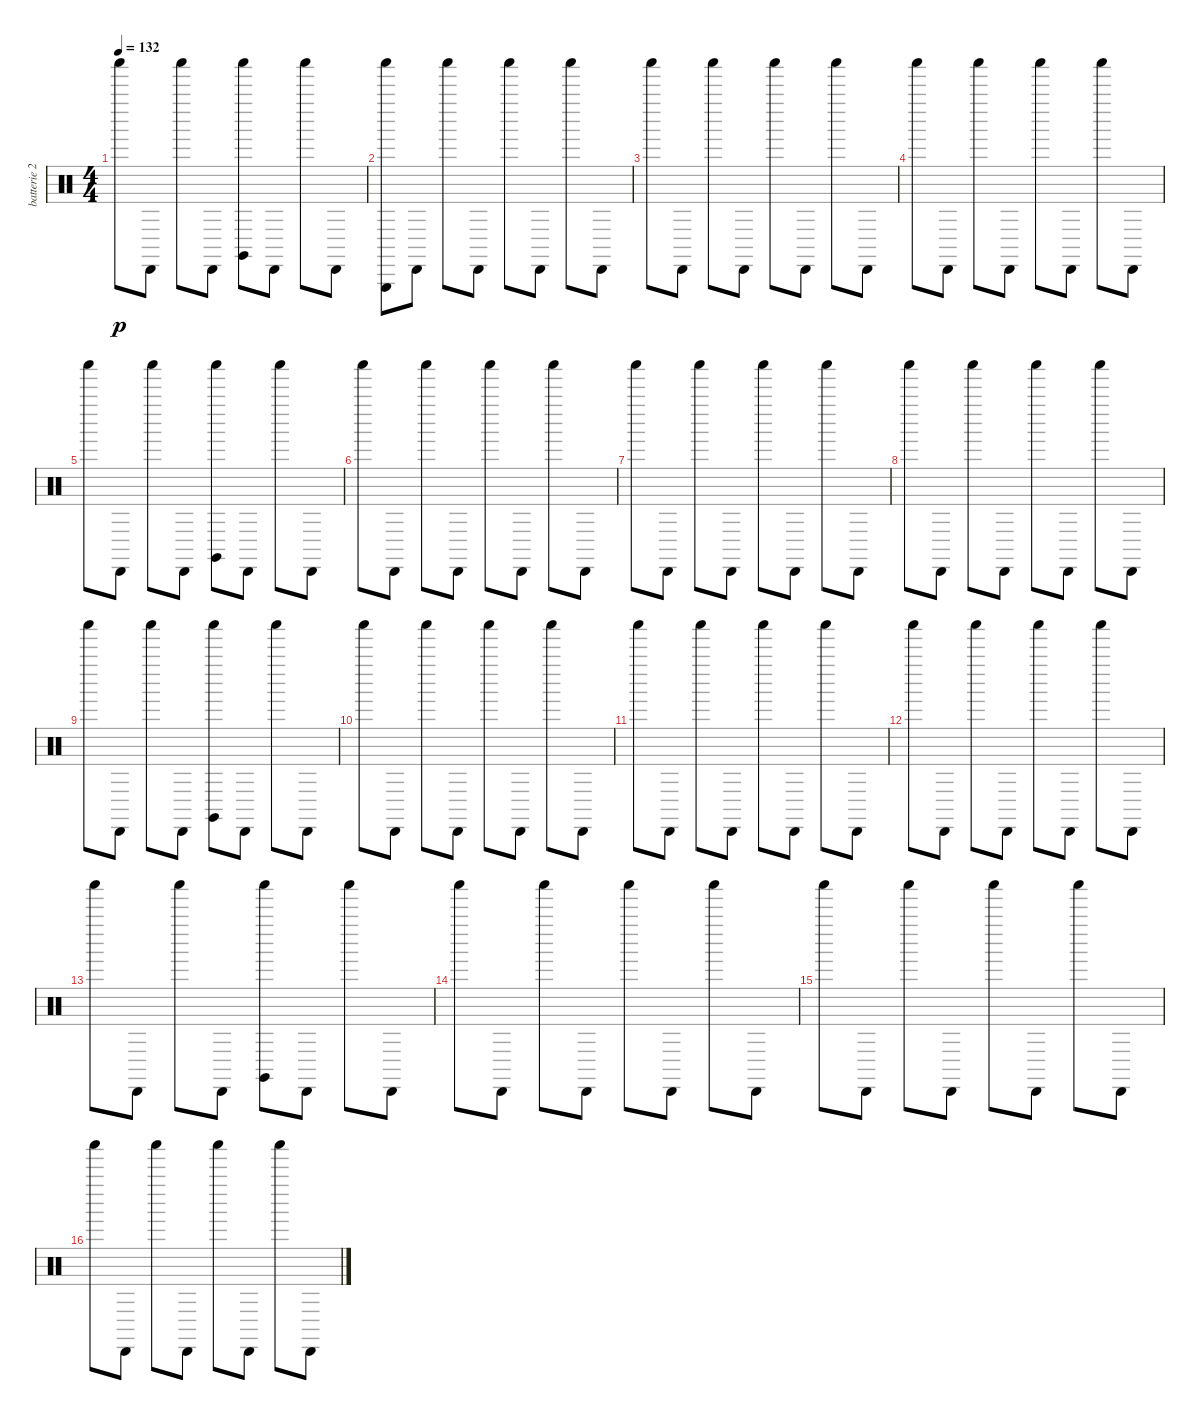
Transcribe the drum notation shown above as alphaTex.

\track ("batterie 2" "batterie 2") {instrument percussion}
\staff {score}
\articulation defaults
\ts (4 4)
\tempo 132
\clef neutral
\ks c "Shaker (hit)".8{dy p} "Cabasa (hit)".8 "Shaker (hit)".8 "Cabasa (hit)".8
("Claves (hit)" "Shaker (hit)").8 "Cabasa (hit)".8 "Shaker (hit)".8 "Cabasa (hit)".8 |
("Triangle (hit)" "Shaker (hit)").8 "Cabasa (hit)".8 "Shaker (hit)".8 "Cabasa (hit)".8 "Shaker (hit)".8 "Cabasa (hit)".8 "Shaker (hit)".8 "Cabasa (hit)".8 |
"Shaker (hit)".8 "Cabasa (hit)".8 "Shaker (hit)".8 "Cabasa (hit)".8 "Shaker (hit)".8 "Cabasa (hit)".8 "Shaker (hit)".8 "Cabasa (hit)".8 |
"Shaker (hit)".8 "Cabasa (hit)".8 "Shaker (hit)".8 "Cabasa (hit)".8 "Shaker (hit)".8 "Cabasa (hit)".8 "Shaker (hit)".8 "Cabasa (hit)".8 |
"Shaker (hit)".8 "Cabasa (hit)".8 "Shaker (hit)".8 "Cabasa (hit)".8 ("Claves (hit)" "Shaker (hit)").8 "Cabasa (hit)".8 "Shaker (hit)".8 "Cabasa (hit)".8 |
"Shaker (hit)".8 "Cabasa (hit)".8 "Shaker (hit)".8 "Cabasa (hit)".8 "Shaker (hit)".8 "Cabasa (hit)".8 "Shaker (hit)".8 "Cabasa (hit)".8 |
"Shaker (hit)".8 "Cabasa (hit)".8 "Shaker (hit)".8 "Cabasa (hit)".8 "Shaker (hit)".8 "Cabasa (hit)".8 "Shaker (hit)".8 "Cabasa (hit)".8 |
"Shaker (hit)".8 "Cabasa (hit)".8 "Shaker (hit)".8 "Cabasa (hit)".8 "Shaker (hit)".8 "Cabasa (hit)".8 "Shaker (hit)".8 "Cabasa (hit)".8 |
"Shaker (hit)".8 "Cabasa (hit)".8 "Shaker (hit)".8 "Cabasa (hit)".8 ("Claves (hit)" "Shaker (hit)").8 "Cabasa (hit)".8 "Shaker (hit)".8 "Cabasa (hit)".8 |
"Shaker (hit)".8 "Cabasa (hit)".8 "Shaker (hit)".8 "Cabasa (hit)".8 "Shaker (hit)".8 "Cabasa (hit)".8 "Shaker (hit)".8 "Cabasa (hit)".8 |
"Shaker (hit)".8 "Cabasa (hit)".8 "Shaker (hit)".8 "Cabasa (hit)".8 "Shaker (hit)".8 "Cabasa (hit)".8 "Shaker (hit)".8 "Cabasa (hit)".8 |
"Shaker (hit)".8 "Cabasa (hit)".8 "Shaker (hit)".8 "Cabasa (hit)".8 "Shaker (hit)".8 "Cabasa (hit)".8 "Shaker (hit)".8 "Cabasa (hit)".8 |
"Shaker (hit)".8 "Cabasa (hit)".8 "Shaker (hit)".8 "Cabasa (hit)".8 ("Claves (hit)" "Shaker (hit)").8 "Cabasa (hit)".8 "Shaker (hit)".8 "Cabasa (hit)".8 |
"Shaker (hit)".8 "Cabasa (hit)".8 "Shaker (hit)".8 "Cabasa (hit)".8 "Shaker (hit)".8 "Cabasa (hit)".8 "Shaker (hit)".8 "Cabasa (hit)".8 |
"Shaker (hit)".8 "Cabasa (hit)".8 "Shaker (hit)".8 "Cabasa (hit)".8 "Shaker (hit)".8 "Cabasa (hit)".8 "Shaker (hit)".8 "Cabasa (hit)".8 |
"Shaker (hit)".8 "Cabasa (hit)".8 "Shaker (hit)".8 "Cabasa (hit)".8 "Shaker (hit)".8 "Cabasa (hit)".8 "Shaker (hit)".8 "Cabasa (hit)".8
